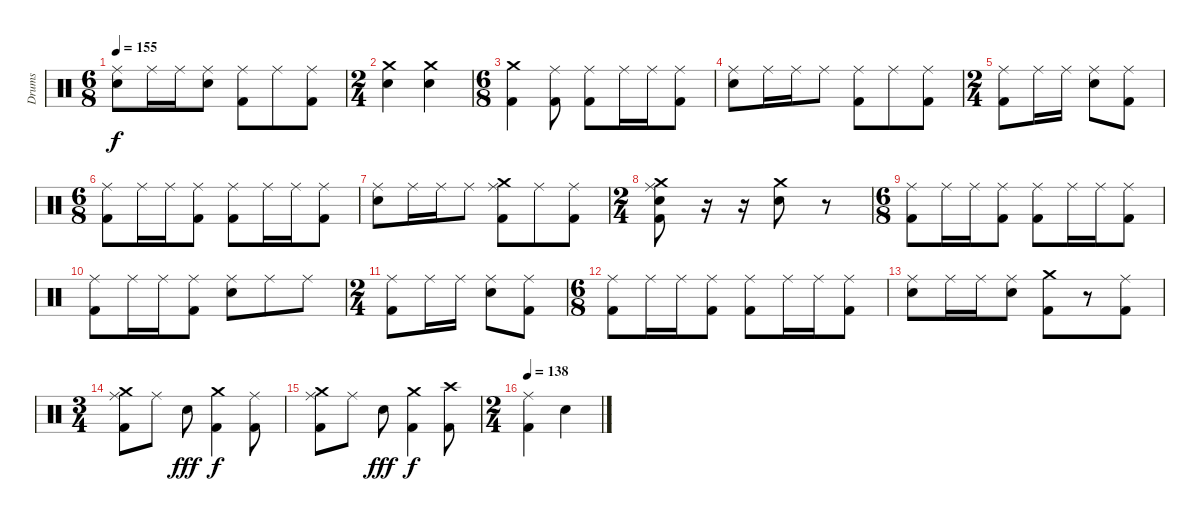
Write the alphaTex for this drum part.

\track ("Drums" "Drums") {instrument percussion}
\staff {score}
\articulation defaults
\ts (6 8)
\tempo 155
\clef neutral
\ks c
("Ride (middle)" "Electric Snare (hit)").8{dy f} "Ride (middle)".16 "Ride (middle)".16 ("Ride (middle)" "Electric Snare (hit)").8 ("Ride (middle)" "Kick (hit) 2").8 "Ride (middle)".8 ("Ride (middle)" "Kick (hit) 2").8 |
\ts (2 4)
("Crash medium (hit)" "Electric Snare (hit)").4 ("Crash medium (hit)" "Electric Snare (hit)").4 |
\ts (6 8)
("Crash medium (hit)" "Kick (hit) 2").4 ("Ride (middle)" "Kick (hit) 2").8 ("Ride (middle)" "Kick (hit) 2").8 "Ride (middle)".16 "Ride (middle)".16 ("Ride (middle)" "Kick (hit) 2").8 |
("Ride (middle)" "Electric Snare (hit)").8 "Ride (middle)".16 "Ride (middle)".16 "Ride (middle)".8 ("Ride (middle)" "Kick (hit) 2").8 "Ride (middle)".8 ("Ride (middle)" "Kick (hit) 2").8 |
\ts (2 4)
("Ride (middle)" "Kick (hit) 2").8 "Ride (middle)".16 "Ride (middle)".16 ("Ride (middle)" "Electric Snare (hit)").8 ("Ride (middle)" "Kick (hit) 2").8 |
\ts (6 8)
("Ride (middle)" "Kick (hit) 2").8 "Ride (middle)".16 "Ride (middle)".16 ("Ride (middle)" "Kick (hit) 2").8 ("Ride (middle)" "Kick (hit) 2").8 "Ride (middle)".16 "Ride (middle)".16 ("Ride (middle)" "Kick (hit) 2").8 |
("Ride (middle)" "Electric Snare (hit)").8 "Ride (middle)".16 "Ride (middle)".16 "Ride (middle)".8 ("Crash medium (hit)" "Ride (middle)" "Kick (hit) 2").8 "Ride (middle)".8 ("Ride (middle)" "Kick (hit) 2").8 |
\ts (2 4)
("Crash medium (hit)" "Ride (middle)" "Electric Snare (hit)" "Kick (hit) 2").8 r.16 r.16 ("Crash medium (hit)" "Electric Snare (hit)").8 r.8 |
\ts (6 8)
("Ride (middle)" "Kick (hit) 2").8 "Ride (middle)".16 "Ride (middle)".16 ("Ride (middle)" "Kick (hit) 2").8 ("Ride (middle)" "Kick (hit) 2").8 "Ride (middle)".16 "Ride (middle)".16 ("Ride (middle)" "Kick (hit) 2").8 |
("Ride (middle)" "Kick (hit) 2").8 "Ride (middle)".16 "Ride (middle)".16 ("Ride (middle)" "Kick (hit) 2").8 ("Ride (middle)" "Electric Snare (hit)").8 "Ride (middle)".8 "Ride (middle)".8 |
\ts (2 4)
("Ride (middle)" "Kick (hit) 2").8 "Ride (middle)".16 "Ride (middle)".16 ("Ride (middle)" "Electric Snare (hit)").8 ("Ride (middle)" "Kick (hit) 2").8 |
\ts (6 8)
("Ride (middle)" "Kick (hit) 2").8 "Ride (middle)".16 "Ride (middle)".16 ("Ride (middle)" "Kick (hit) 2").8 ("Ride (middle)" "Kick (hit) 2").8 "Ride (middle)".16 "Ride (middle)".16 ("Ride (middle)" "Kick (hit) 2").8 |
("Ride (middle)" "Electric Snare (hit)").8 "Ride (middle)".16 "Ride (middle)".16 ("Ride (middle)" "Electric Snare (hit)").8 ("Crash medium (hit)" "Kick (hit) 2").8 r.8 ("Ride (middle)" "Kick (hit) 2").8 |
\ts (3 4)
("Crash medium (hit)" "Ride (middle)" "Kick (hit) 2").8 "Ride (middle)".8 "Electric Snare (hit)".8{dy fff} ("Crash medium (hit)" "Kick (hit) 2").4{dy f} ("Ride (middle)" "Kick (hit) 2").8 |
("Crash medium (hit)" "Ride (middle)" "Kick (hit) 2").8 "Ride (middle)".8 "Electric Snare (hit)".8{dy fff} ("Crash medium (hit)" "Kick (hit) 2").4{dy f} ("Crash high (hit)" "Kick (hit) 2").8 |
\ts (2 4)
\tempo 138
("Ride (middle)" "Kick (hit) 2").4 "Electric Snare (hit)".4
